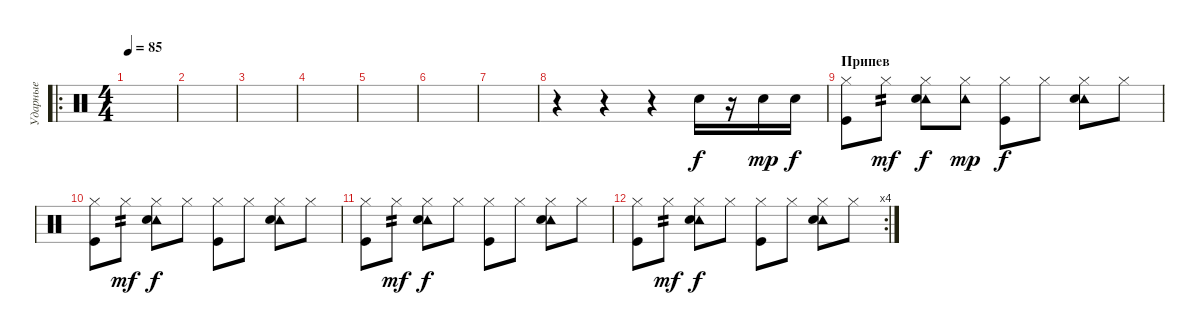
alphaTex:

\track ("Ударные" "Ударные") {instrument percussion}
\staff {score}
\articulation defaults
\ro
\ts (4 4)
\tempo 85
\clef neutral
\ks c
|
|
|
|
|
|
|
r.4 r.4 r.4 "Electric Snare (hit)".16 r.16 "Electric Snare (hit)".16{dy mp} "Electric Snare (hit)".16{dy f} |
\section ("" "Припев")
("Hi-Hat (closed)" "Kick (hit)").8 "Hi-Hat (closed)".8{tp 2 dy mf} ("Hi-Hat (closed)" "Tambourine (hit)" "Electric Snare (hit)").8{dy f} ("Hi-Hat (closed)" "Tambourine (hit)").8{dy mp} ("Hi-Hat (closed)" "Kick (hit)").8{dy f} "Hi-Hat (closed)".8 ("Hi-Hat (closed)" "Tambourine (hit)" "Electric Snare (hit)").8 "Hi-Hat (closed)".8 |
("Hi-Hat (closed)" "Kick (hit)").8 "Hi-Hat (closed)".8{tp 2 dy mf} ("Hi-Hat (closed)" "Tambourine (hit)" "Electric Snare (hit)").8{dy f} "Hi-Hat (closed)".8 ("Hi-Hat (closed)" "Kick (hit)").8 "Hi-Hat (closed)".8 ("Hi-Hat (closed)" "Tambourine (hit)" "Electric Snare (hit)").8 "Hi-Hat (closed)".8 |
("Hi-Hat (closed)" "Kick (hit)").8 "Hi-Hat (closed)".8{tp 2 dy mf} ("Hi-Hat (closed)" "Tambourine (hit)" "Electric Snare (hit)").8{dy f} "Hi-Hat (closed)".8 ("Hi-Hat (closed)" "Kick (hit)").8 "Hi-Hat (closed)".8 ("Hi-Hat (closed)" "Tambourine (hit)" "Electric Snare (hit)").8 "Hi-Hat (closed)".8 |
\rc 4
("Hi-Hat (closed)" "Kick (hit)").8 "Hi-Hat (closed)".8{tp 2 dy mf} ("Hi-Hat (closed)" "Tambourine (hit)" "Electric Snare (hit)").8{dy f} "Hi-Hat (closed)".8 ("Hi-Hat (closed)" "Kick (hit)").8 "Hi-Hat (closed)".8 ("Hi-Hat (closed)" "Tambourine (hit)" "Electric Snare (hit)").8 "Hi-Hat (closed)".8
